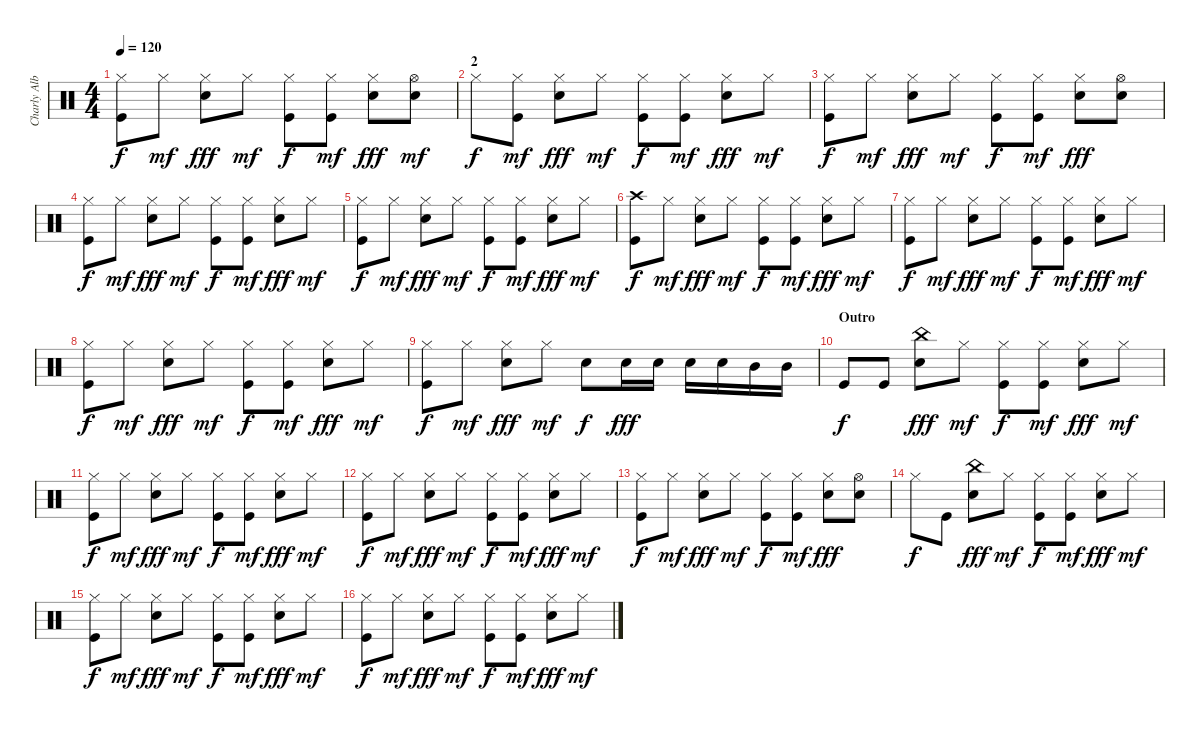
\track ("Charly Alberti" "Charly Alb") {instrument percussion}
\staff {score}
\articulation defaults
\ts (4 4)
\tempo 120
\clef neutral
\ks c
("Kick (hit)" "Hi-Hat (closed)").8{dy f} "Hi-Hat (closed)".8{dy mf} ("Snare (hit) 2" "Hi-Hat (closed)").8{dy fff} "Hi-Hat (closed)".8{dy mf} ("Kick (hit)" "Hi-Hat (closed)").8{dy f} ("Kick (hit)" "Hi-Hat (closed)").8{dy mf} ("Snare (hit) 2" "Hi-Hat (closed)").8{dy fff} ("Snare (hit) 2" "Hi-Hat (open)").8{dy mf} |
\section ("" "2")
"Hi-Hat (closed)".8{dy f} ("Kick (hit)" "Hi-Hat (closed)").8{dy mf} ("Snare (hit) 2" "Hi-Hat (closed)").8{dy fff} "Hi-Hat (closed)".8{dy mf} ("Kick (hit)" "Hi-Hat (closed)").8{dy f} ("Kick (hit)" "Hi-Hat (closed)").8{dy mf} ("Snare (hit) 2" "Hi-Hat (closed)").8{dy fff} "Hi-Hat (closed)".8{dy mf} |
("Kick (hit)" "Hi-Hat (closed)").8{dy f} "Hi-Hat (closed)".8{dy mf} ("Snare (hit) 2" "Hi-Hat (closed)").8{dy fff} "Hi-Hat (closed)".8{dy mf} ("Kick (hit)" "Hi-Hat (closed)").8{dy f} ("Kick (hit)" "Hi-Hat (closed)").8{dy mf} ("Snare (hit) 2" "Hi-Hat (closed)").8{dy fff} ("Snare (hit) 2" "Hi-Hat (open)").8 |
("Kick (hit)" "Hi-Hat (closed)").8{dy f} "Hi-Hat (closed)".8{dy mf} ("Snare (hit) 2" "Hi-Hat (closed)").8{dy fff} "Hi-Hat (closed)".8{dy mf} ("Kick (hit)" "Hi-Hat (closed)").8{dy f} ("Kick (hit)" "Hi-Hat (closed)").8{dy mf} ("Snare (hit) 2" "Hi-Hat (closed)").8{dy fff} "Hi-Hat (closed)".8{dy mf} |
("Kick (hit)" "Hi-Hat (closed)").8{dy f} "Hi-Hat (closed)".8{dy mf} ("Snare (hit) 2" "Hi-Hat (closed)").8{dy fff} "Hi-Hat (closed)".8{dy mf} ("Kick (hit)" "Hi-Hat (closed)").8{dy f} ("Kick (hit)" "Hi-Hat (closed)").8{dy mf} ("Snare (hit) 2" "Hi-Hat (closed)").8{dy fff} "Hi-Hat (closed)".8{dy mf} |
("Kick (hit)" "Crash high (hit)").8{dy f} "Hi-Hat (closed)".8{dy mf} ("Snare (hit) 2" "Hi-Hat (closed)").8{dy fff} "Hi-Hat (closed)".8{dy mf} ("Kick (hit)" "Hi-Hat (closed)").8{dy f} ("Kick (hit)" "Hi-Hat (closed)").8{dy mf} ("Snare (hit) 2" "Hi-Hat (closed)").8{dy fff} "Hi-Hat (closed)".8{dy mf} |
("Kick (hit)" "Hi-Hat (closed)").8{dy f} "Hi-Hat (closed)".8{dy mf} ("Snare (hit) 2" "Hi-Hat (closed)").8{dy fff} "Hi-Hat (closed)".8{dy mf} ("Kick (hit)" "Hi-Hat (closed)").8{dy f} ("Kick (hit)" "Hi-Hat (closed)").8{dy mf} ("Snare (hit) 2" "Hi-Hat (closed)").8{dy fff} "Hi-Hat (closed)".8{dy mf} |
("Kick (hit)" "Hi-Hat (closed)").8{dy f} "Hi-Hat (closed)".8{dy mf} ("Snare (hit) 2" "Hi-Hat (closed)").8{dy fff} "Hi-Hat (closed)".8{dy mf} ("Kick (hit)" "Hi-Hat (closed)").8{dy f} ("Kick (hit)" "Hi-Hat (closed)").8{dy mf} ("Snare (hit) 2" "Hi-Hat (closed)").8{dy fff} "Hi-Hat (closed)".8{dy mf} |
("Kick (hit)" "Hi-Hat (closed)").8{dy f} "Hi-Hat (closed)".8{dy mf} ("Snare (hit) 2" "Hi-Hat (closed)").8{dy fff} "Hi-Hat (closed)".8{dy mf} "Snare (hit) 2".8{dy f} "Snare (hit) 2".16{dy fff} "Snare (hit) 2".16 "Snare (hit) 2".16 "Snare (hit) 2".16 "Mid Tom (hit)".16 "Mid Tom (hit)".16 |
\section ("" "Outro")
"Kick (hit)".8{dy f} "Kick (hit)".8 ("Snare (hit) 2" "China (hit)").8{dy fff} "Hi-Hat (closed)".8{dy mf} ("Kick (hit)" "Hi-Hat (closed)").8{dy f} ("Kick (hit)" "Hi-Hat (closed)").8{dy mf} ("Snare (hit) 2" "Hi-Hat (closed)").8{dy fff} "Hi-Hat (closed)".8{dy mf} |
("Kick (hit)" "Hi-Hat (closed)").8{dy f} "Hi-Hat (closed)".8{dy mf} ("Snare (hit) 2" "Hi-Hat (closed)").8{dy fff} "Hi-Hat (closed)".8{dy mf} ("Kick (hit)" "Hi-Hat (closed)").8{dy f} ("Kick (hit)" "Hi-Hat (closed)").8{dy mf} ("Snare (hit) 2" "Hi-Hat (closed)").8{dy fff} "Hi-Hat (closed)".8{dy mf} |
("Kick (hit)" "Hi-Hat (closed)").8{dy f} "Hi-Hat (closed)".8{dy mf} ("Snare (hit) 2" "Hi-Hat (closed)").8{dy fff} "Hi-Hat (closed)".8{dy mf} ("Kick (hit)" "Hi-Hat (closed)").8{dy f} ("Kick (hit)" "Hi-Hat (closed)").8{dy mf} ("Snare (hit) 2" "Hi-Hat (closed)").8{dy fff} "Hi-Hat (closed)".8{dy mf} |
("Kick (hit)" "Hi-Hat (closed)").8{dy f} "Hi-Hat (closed)".8{dy mf} ("Snare (hit) 2" "Hi-Hat (closed)").8{dy fff} "Hi-Hat (closed)".8{dy mf} ("Kick (hit)" "Hi-Hat (closed)").8{dy f} ("Kick (hit)" "Hi-Hat (closed)").8{dy mf} ("Snare (hit) 2" "Hi-Hat (closed)").8{dy fff} ("Snare (hit) 2" "Hi-Hat (open)").8 |
"Hi-Hat (closed)".8{dy f} "Kick (hit)".8 ("Snare (hit) 2" "China (hit)").8{dy fff} "Hi-Hat (closed)".8{dy mf} ("Kick (hit)" "Hi-Hat (closed)").8{dy f} ("Kick (hit)" "Hi-Hat (closed)").8{dy mf} ("Snare (hit) 2" "Hi-Hat (closed)").8{dy fff} "Hi-Hat (closed)".8{dy mf} |
("Kick (hit)" "Hi-Hat (closed)").8{dy f} "Hi-Hat (closed)".8{dy mf} ("Snare (hit) 2" "Hi-Hat (closed)").8{dy fff} "Hi-Hat (closed)".8{dy mf} ("Kick (hit)" "Hi-Hat (closed)").8{dy f} ("Kick (hit)" "Hi-Hat (closed)").8{dy mf} ("Snare (hit) 2" "Hi-Hat (closed)").8{dy fff} "Hi-Hat (closed)".8{dy mf} |
("Kick (hit)" "Hi-Hat (closed)").8{dy f} "Hi-Hat (closed)".8{dy mf} ("Snare (hit) 2" "Hi-Hat (closed)").8{dy fff} "Hi-Hat (closed)".8{dy mf} ("Kick (hit)" "Hi-Hat (closed)").8{dy f} ("Kick (hit)" "Hi-Hat (closed)").8{dy mf} ("Snare (hit) 2" "Hi-Hat (closed)").8{dy fff} "Hi-Hat (closed)".8{dy mf}
